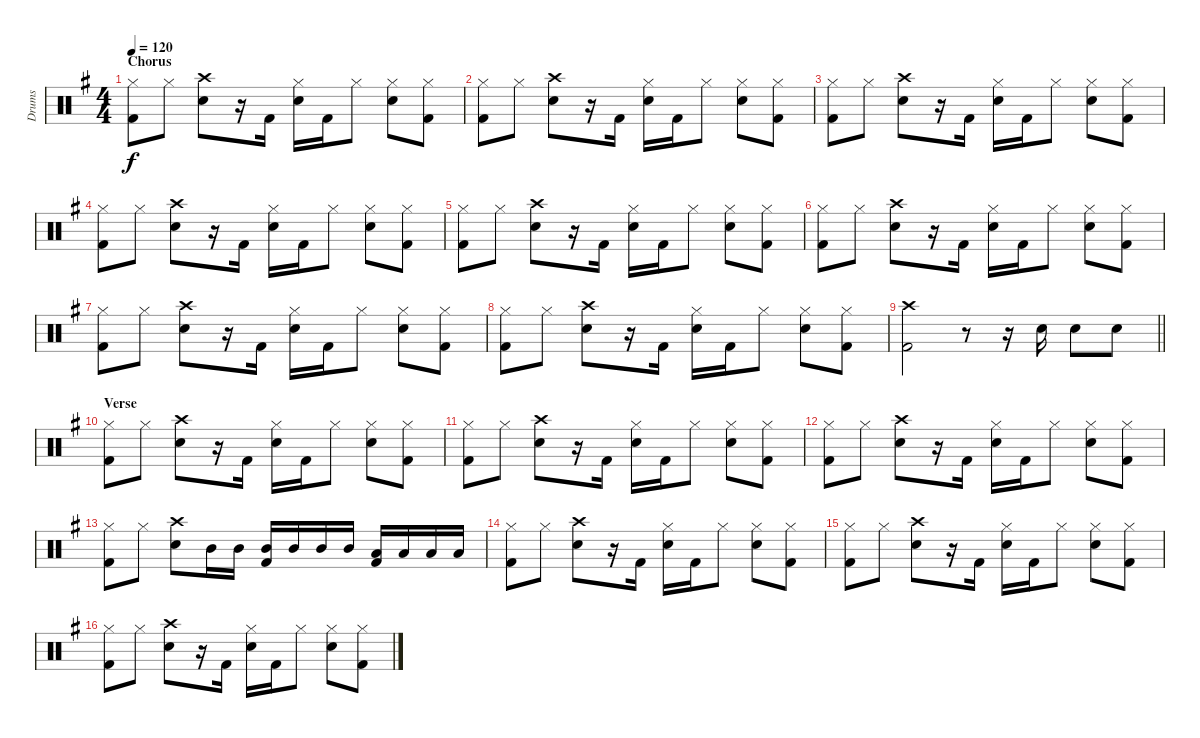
\track ("Drums" "Drums") {instrument percussion}
\staff {score}
\articulation defaults
\ts (4 4)
\section ("" "Chorus")
\tempo 120
\clef neutral
\ks g
("Hi-Hat (closed)" "Kick (hit) 2").8{dy f} "Hi-Hat (closed)".8 ("Crash high (hit)" "Electric Snare (hit)").8 r.16 "Kick (hit) 2".16 ("Hi-Hat (closed)" "Electric Snare (hit)").16 "Kick (hit) 2".16 "Hi-Hat (closed)".8 ("Hi-Hat (closed)" "Electric Snare (hit)").8 ("Hi-Hat (closed)" "Kick (hit) 2").8 |
("Hi-Hat (closed)" "Kick (hit) 2").8 "Hi-Hat (closed)".8 ("Crash high (hit)" "Electric Snare (hit)").8 r.16 "Kick (hit) 2".16 ("Hi-Hat (closed)" "Electric Snare (hit)").16 "Kick (hit) 2".16 "Hi-Hat (closed)".8 ("Hi-Hat (closed)" "Electric Snare (hit)").8 ("Hi-Hat (closed)" "Kick (hit) 2").8 |
("Hi-Hat (closed)" "Kick (hit) 2").8 "Hi-Hat (closed)".8 ("Crash high (hit)" "Electric Snare (hit)").8 r.16 "Kick (hit) 2".16 ("Hi-Hat (closed)" "Electric Snare (hit)").16 "Kick (hit) 2".16 "Hi-Hat (closed)".8 ("Hi-Hat (closed)" "Electric Snare (hit)").8 ("Hi-Hat (closed)" "Kick (hit) 2").8 |
("Hi-Hat (closed)" "Kick (hit) 2").8 "Hi-Hat (closed)".8 ("Crash high (hit)" "Electric Snare (hit)").8 r.16 "Kick (hit) 2".16 ("Hi-Hat (closed)" "Electric Snare (hit)").16 "Kick (hit) 2".16 "Hi-Hat (closed)".8 ("Hi-Hat (closed)" "Electric Snare (hit)").8 ("Hi-Hat (closed)" "Kick (hit) 2").8 |
("Hi-Hat (closed)" "Kick (hit) 2").8 "Hi-Hat (closed)".8 ("Crash high (hit)" "Electric Snare (hit)").8 r.16 "Kick (hit) 2".16 ("Hi-Hat (closed)" "Electric Snare (hit)").16 "Kick (hit) 2".16 "Hi-Hat (closed)".8 ("Hi-Hat (closed)" "Electric Snare (hit)").8 ("Hi-Hat (closed)" "Kick (hit) 2").8 |
("Hi-Hat (closed)" "Kick (hit) 2").8 "Hi-Hat (closed)".8 ("Crash high (hit)" "Electric Snare (hit)").8 r.16 "Kick (hit) 2".16 ("Hi-Hat (closed)" "Electric Snare (hit)").16 "Kick (hit) 2".16 "Hi-Hat (closed)".8 ("Hi-Hat (closed)" "Electric Snare (hit)").8 ("Hi-Hat (closed)" "Kick (hit) 2").8 |
("Hi-Hat (closed)" "Kick (hit) 2").8 "Hi-Hat (closed)".8 ("Crash high (hit)" "Electric Snare (hit)").8 r.16 "Kick (hit) 2".16 ("Hi-Hat (closed)" "Electric Snare (hit)").16 "Kick (hit) 2".16 "Hi-Hat (closed)".8 ("Hi-Hat (closed)" "Electric Snare (hit)").8 ("Hi-Hat (closed)" "Kick (hit) 2").8 |
("Hi-Hat (closed)" "Kick (hit) 2").8 "Hi-Hat (closed)".8 ("Crash high (hit)" "Electric Snare (hit)").8 r.16 "Kick (hit) 2".16 ("Hi-Hat (closed)" "Electric Snare (hit)").16 "Kick (hit) 2".16 "Hi-Hat (closed)".8 ("Hi-Hat (closed)" "Electric Snare (hit)").8 ("Hi-Hat (closed)" "Kick (hit) 2").8 |
\barLineRight lightlight
("Crash high (hit)" "Kick (hit) 2").2 r.8 r.16 "Electric Snare (hit)".16 "Electric Snare (hit)".8 "Electric Snare (hit)".8 |
\section ("" "Verse")
("Hi-Hat (closed)" "Kick (hit) 2").8 "Hi-Hat (closed)".8 ("Crash high (hit)" "Electric Snare (hit)").8 r.16 "Kick (hit) 2".16 ("Hi-Hat (closed)" "Electric Snare (hit)").16 "Kick (hit) 2".16 "Hi-Hat (closed)".8 ("Hi-Hat (closed)" "Electric Snare (hit)").8 ("Hi-Hat (closed)" "Kick (hit) 2").8 |
("Hi-Hat (closed)" "Kick (hit) 2").8 "Hi-Hat (closed)".8 ("Crash high (hit)" "Electric Snare (hit)").8 r.16 "Kick (hit) 2".16 ("Hi-Hat (closed)" "Electric Snare (hit)").16 "Kick (hit) 2".16 "Hi-Hat (closed)".8 ("Hi-Hat (closed)" "Electric Snare (hit)").8 ("Hi-Hat (closed)" "Kick (hit) 2").8 |
("Hi-Hat (closed)" "Kick (hit) 2").8 "Hi-Hat (closed)".8 ("Crash high (hit)" "Electric Snare (hit)").8 r.16 "Kick (hit) 2".16 ("Hi-Hat (closed)" "Electric Snare (hit)").16 "Kick (hit) 2".16 "Hi-Hat (closed)".8 ("Hi-Hat (closed)" "Electric Snare (hit)").8 ("Hi-Hat (closed)" "Kick (hit) 2").8 |
("Hi-Hat (closed)" "Kick (hit) 2").8 "Hi-Hat (closed)".8 ("Crash high (hit)" "Electric Snare (hit)").8 "Mid Tom (hit)".16 "Mid Tom (hit)".16 ("Mid Tom (hit)" "Kick (hit) 2").16 "Mid Tom (hit)".16 "Mid Tom (hit)".16 "Mid Tom (hit)".16 ("Low Tom (hit)" "Kick (hit) 2").16 "Low Tom (hit)".16 "Low Tom (hit)".16 "Low Tom (hit)".16 |
("Hi-Hat (closed)" "Kick (hit) 2").8 "Hi-Hat (closed)".8 ("Crash high (hit)" "Electric Snare (hit)").8 r.16 "Kick (hit) 2".16 ("Hi-Hat (closed)" "Electric Snare (hit)").16 "Kick (hit) 2".16 "Hi-Hat (closed)".8 ("Hi-Hat (closed)" "Electric Snare (hit)").8 ("Hi-Hat (closed)" "Kick (hit) 2").8 |
("Hi-Hat (closed)" "Kick (hit) 2").8 "Hi-Hat (closed)".8 ("Crash high (hit)" "Electric Snare (hit)").8 r.16 "Kick (hit) 2".16 ("Hi-Hat (closed)" "Electric Snare (hit)").16 "Kick (hit) 2".16 "Hi-Hat (closed)".8 ("Hi-Hat (closed)" "Electric Snare (hit)").8 ("Hi-Hat (closed)" "Kick (hit) 2").8 |
("Hi-Hat (closed)" "Kick (hit) 2").8 "Hi-Hat (closed)".8 ("Crash high (hit)" "Electric Snare (hit)").8 r.16 "Kick (hit) 2".16 ("Hi-Hat (closed)" "Electric Snare (hit)").16 "Kick (hit) 2".16 "Hi-Hat (closed)".8 ("Hi-Hat (closed)" "Electric Snare (hit)").8 ("Hi-Hat (closed)" "Kick (hit) 2").8
